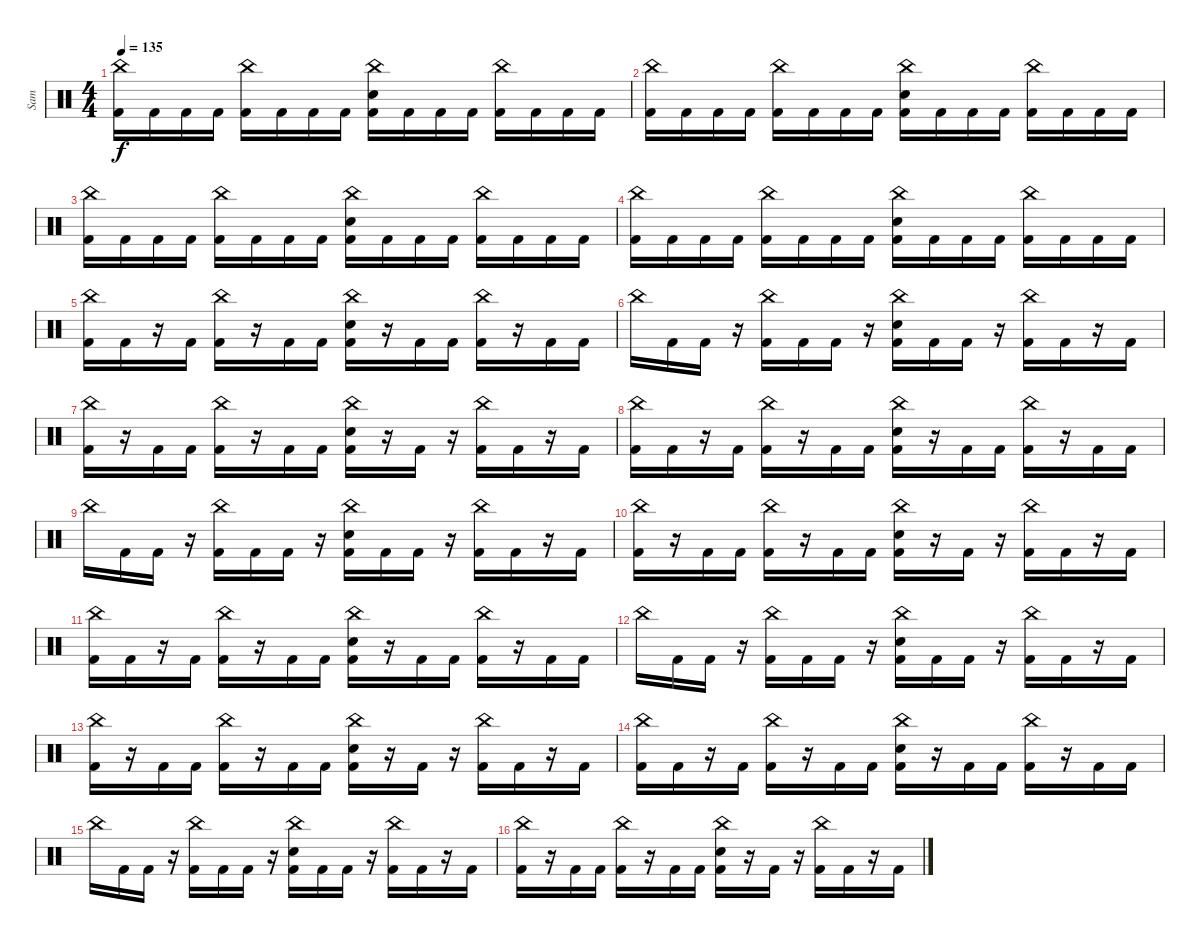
\track ("Sam" "Sam") {instrument percussion}
\staff {score}
\articulation defaults
\ts (4 4)
\tempo 135
\clef neutral
\ks c
("China (hit)" "Kick (hit) 2").16{dy f} "Kick (hit) 2".16 "Kick (hit) 2".16 "Kick (hit) 2".16 ("China (hit)" "Kick (hit) 2").16 "Kick (hit) 2".16 "Kick (hit) 2".16 "Kick (hit) 2".16 ("China (hit)" "Snare (hit) 2" "Kick (hit) 2").16 "Kick (hit) 2".16 "Kick (hit) 2".16 "Kick (hit) 2".16 ("China (hit)" "Kick (hit) 2").16 "Kick (hit) 2".16 "Kick (hit) 2".16 "Kick (hit) 2".16 |
("China (hit)" "Kick (hit) 2").16 "Kick (hit) 2".16 "Kick (hit) 2".16 "Kick (hit) 2".16 ("China (hit)" "Kick (hit) 2").16 "Kick (hit) 2".16 "Kick (hit) 2".16 "Kick (hit) 2".16 ("China (hit)" "Snare (hit) 2" "Kick (hit) 2").16 "Kick (hit) 2".16 "Kick (hit) 2".16 "Kick (hit) 2".16 ("China (hit)" "Kick (hit) 2").16 "Kick (hit) 2".16 "Kick (hit) 2".16 "Kick (hit) 2".16 |
("China (hit)" "Kick (hit) 2").16 "Kick (hit) 2".16 "Kick (hit) 2".16 "Kick (hit) 2".16 ("China (hit)" "Kick (hit) 2").16 "Kick (hit) 2".16 "Kick (hit) 2".16 "Kick (hit) 2".16 ("China (hit)" "Snare (hit) 2" "Kick (hit) 2").16 "Kick (hit) 2".16 "Kick (hit) 2".16 "Kick (hit) 2".16 ("China (hit)" "Kick (hit) 2").16 "Kick (hit) 2".16 "Kick (hit) 2".16 "Kick (hit) 2".16 |
("China (hit)" "Kick (hit) 2").16 "Kick (hit) 2".16 "Kick (hit) 2".16 "Kick (hit) 2".16 ("China (hit)" "Kick (hit) 2").16 "Kick (hit) 2".16 "Kick (hit) 2".16 "Kick (hit) 2".16 ("China (hit)" "Snare (hit) 2" "Kick (hit) 2").16 "Kick (hit) 2".16 "Kick (hit) 2".16 "Kick (hit) 2".16 ("China (hit)" "Kick (hit) 2").16 "Kick (hit) 2".16 "Kick (hit) 2".16 "Kick (hit) 2".16 |
("China (hit)" "Kick (hit) 2").16 "Kick (hit) 2".16 r.16 "Kick (hit) 2".16 ("China (hit)" "Kick (hit) 2").16 r.16 "Kick (hit) 2".16 "Kick (hit) 2".16 ("China (hit)" "Snare (hit) 2" "Kick (hit) 2").16 r.16 "Kick (hit) 2".16 "Kick (hit) 2".16 ("China (hit)" "Kick (hit) 2").16 r.16 "Kick (hit) 2".16 "Kick (hit) 2".16 |
"China (hit)".16 "Kick (hit) 2".16 "Kick (hit) 2".16 r.16 ("China (hit)" "Kick (hit) 2").16 "Kick (hit) 2".16 "Kick (hit) 2".16 r.16 ("China (hit)" "Snare (hit) 2" "Kick (hit) 2").16 "Kick (hit) 2".16 "Kick (hit) 2".16 r.16 ("China (hit)" "Kick (hit) 2").16 "Kick (hit) 2".16 r.16 "Kick (hit) 2".16 |
("China (hit)" "Kick (hit) 2").16 r.16 "Kick (hit) 2".16 "Kick (hit) 2".16 ("China (hit)" "Kick (hit) 2").16 r.16 "Kick (hit) 2".16 "Kick (hit) 2".16 ("China (hit)" "Snare (hit) 2" "Kick (hit) 2").16 r.16 "Kick (hit) 2".16 r.16 ("China (hit)" "Kick (hit) 2").16 "Kick (hit) 2".16 r.16 "Kick (hit) 2".16 |
("China (hit)" "Kick (hit) 2").16 "Kick (hit) 2".16 r.16 "Kick (hit) 2".16 ("China (hit)" "Kick (hit) 2").16 r.16 "Kick (hit) 2".16 "Kick (hit) 2".16 ("China (hit)" "Snare (hit) 2" "Kick (hit) 2").16 r.16 "Kick (hit) 2".16 "Kick (hit) 2".16 ("China (hit)" "Kick (hit) 2").16 r.16 "Kick (hit) 2".16 "Kick (hit) 2".16 |
"China (hit)".16 "Kick (hit) 2".16 "Kick (hit) 2".16 r.16 ("China (hit)" "Kick (hit) 2").16 "Kick (hit) 2".16 "Kick (hit) 2".16 r.16 ("China (hit)" "Snare (hit) 2" "Kick (hit) 2").16 "Kick (hit) 2".16 "Kick (hit) 2".16 r.16 ("China (hit)" "Kick (hit) 2").16 "Kick (hit) 2".16 r.16 "Kick (hit) 2".16 |
("China (hit)" "Kick (hit) 2").16 r.16 "Kick (hit) 2".16 "Kick (hit) 2".16 ("China (hit)" "Kick (hit) 2").16 r.16 "Kick (hit) 2".16 "Kick (hit) 2".16 ("China (hit)" "Snare (hit) 2" "Kick (hit) 2").16 r.16 "Kick (hit) 2".16 r.16 ("China (hit)" "Kick (hit) 2").16 "Kick (hit) 2".16 r.16 "Kick (hit) 2".16 |
("China (hit)" "Kick (hit) 2").16 "Kick (hit) 2".16 r.16 "Kick (hit) 2".16 ("China (hit)" "Kick (hit) 2").16 r.16 "Kick (hit) 2".16 "Kick (hit) 2".16 ("China (hit)" "Snare (hit) 2" "Kick (hit) 2").16 r.16 "Kick (hit) 2".16 "Kick (hit) 2".16 ("China (hit)" "Kick (hit) 2").16 r.16 "Kick (hit) 2".16 "Kick (hit) 2".16 |
"China (hit)".16 "Kick (hit) 2".16 "Kick (hit) 2".16 r.16 ("China (hit)" "Kick (hit) 2").16 "Kick (hit) 2".16 "Kick (hit) 2".16 r.16 ("China (hit)" "Snare (hit) 2" "Kick (hit) 2").16 "Kick (hit) 2".16 "Kick (hit) 2".16 r.16 ("China (hit)" "Kick (hit) 2").16 "Kick (hit) 2".16 r.16 "Kick (hit) 2".16 |
("China (hit)" "Kick (hit) 2").16 r.16 "Kick (hit) 2".16 "Kick (hit) 2".16 ("China (hit)" "Kick (hit) 2").16 r.16 "Kick (hit) 2".16 "Kick (hit) 2".16 ("China (hit)" "Snare (hit) 2" "Kick (hit) 2").16 r.16 "Kick (hit) 2".16 r.16 ("China (hit)" "Kick (hit) 2").16 "Kick (hit) 2".16 r.16 "Kick (hit) 2".16 |
("China (hit)" "Kick (hit) 2").16 "Kick (hit) 2".16 r.16 "Kick (hit) 2".16 ("China (hit)" "Kick (hit) 2").16 r.16 "Kick (hit) 2".16 "Kick (hit) 2".16 ("China (hit)" "Snare (hit) 2" "Kick (hit) 2").16 r.16 "Kick (hit) 2".16 "Kick (hit) 2".16 ("China (hit)" "Kick (hit) 2").16 r.16 "Kick (hit) 2".16 "Kick (hit) 2".16 |
"China (hit)".16 "Kick (hit) 2".16 "Kick (hit) 2".16 r.16 ("China (hit)" "Kick (hit) 2").16 "Kick (hit) 2".16 "Kick (hit) 2".16 r.16 ("China (hit)" "Snare (hit) 2" "Kick (hit) 2").16 "Kick (hit) 2".16 "Kick (hit) 2".16 r.16 ("China (hit)" "Kick (hit) 2").16 "Kick (hit) 2".16 r.16 "Kick (hit) 2".16 |
("China (hit)" "Kick (hit) 2").16 r.16 "Kick (hit) 2".16 "Kick (hit) 2".16 ("China (hit)" "Kick (hit) 2").16 r.16 "Kick (hit) 2".16 "Kick (hit) 2".16 ("China (hit)" "Snare (hit) 2" "Kick (hit) 2").16 r.16 "Kick (hit) 2".16 r.16 ("China (hit)" "Kick (hit) 2").16 "Kick (hit) 2".16 r.16 "Kick (hit) 2".16
